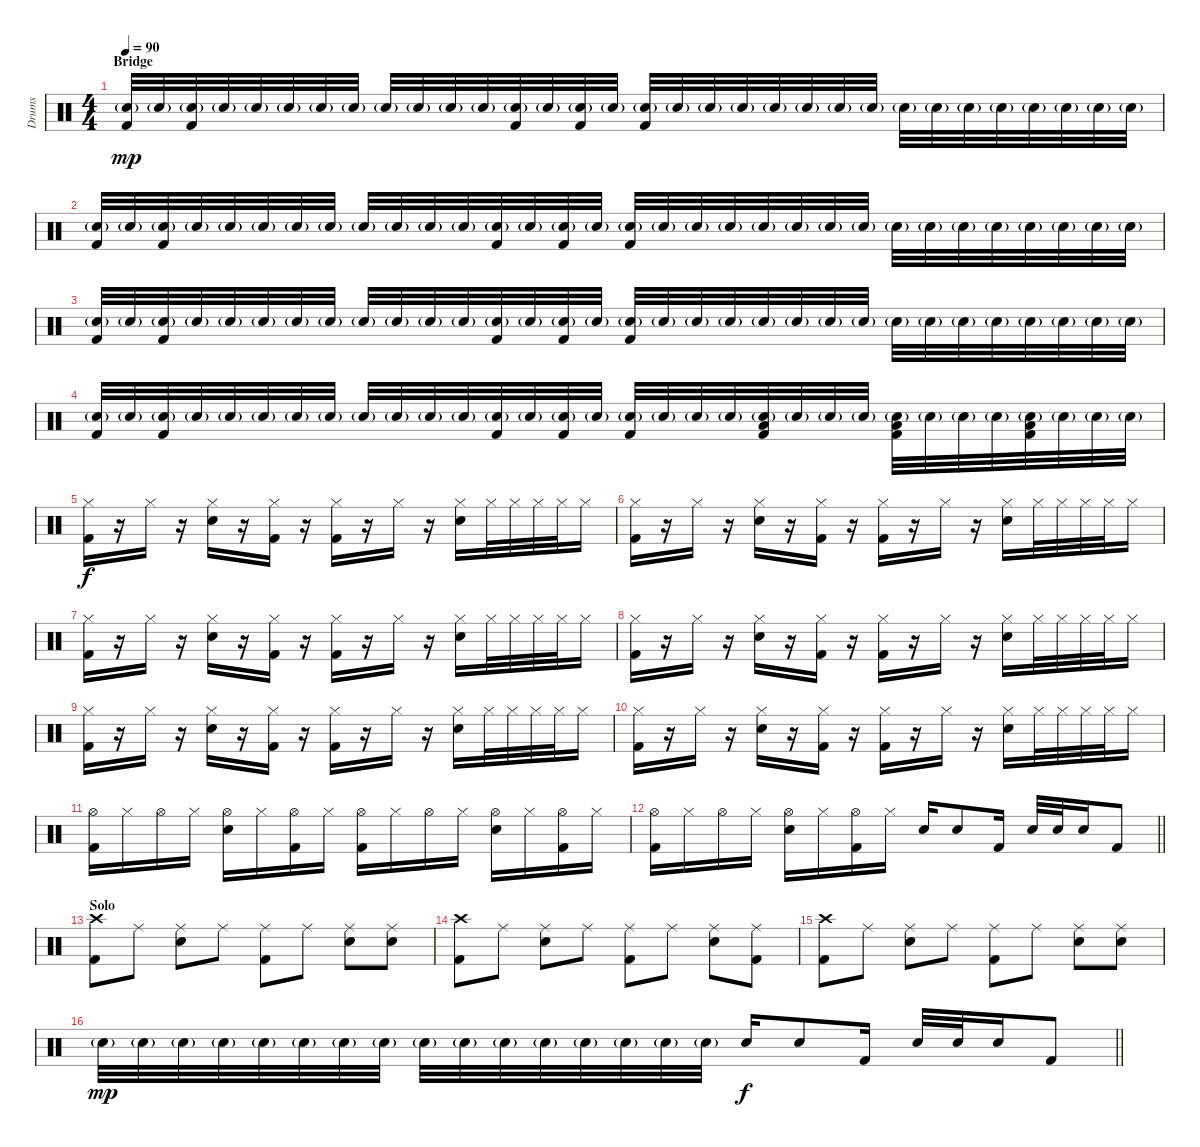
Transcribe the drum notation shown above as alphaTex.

\track ("Drums" "Drums") {instrument percussion}
\staff {score}
\articulation defaults
\ts (4 4)
\section ("" "Bridge")
\tempo 90
\clef neutral
\ks c
("Snare (hit) 2"{g} "Kick (hit) 2").32{dy mp} "Snare (hit) 2"{g}.32 ("Snare (hit) 2"{g} "Kick (hit) 2").32 "Snare (hit) 2"{g}.32 "Snare (hit) 2"{g}.32 "Snare (hit) 2"{g}.32 "Snare (hit) 2"{g}.32 "Snare (hit) 2"{g}.32 "Snare (hit) 2"{g}.32 "Snare (hit) 2"{g}.32 "Snare (hit) 2"{g}.32 "Snare (hit) 2"{g}.32 ("Snare (hit) 2"{g} "Kick (hit) 2").32 "Snare (hit) 2"{g}.32 ("Snare (hit) 2"{g} "Kick (hit) 2").32 "Snare (hit) 2"{g}.32 ("Snare (hit) 2"{g} "Kick (hit) 2").32 "Snare (hit) 2"{g}.32 "Snare (hit) 2"{g}.32 "Snare (hit) 2"{g}.32 "Snare (hit) 2"{g}.32 "Snare (hit) 2"{g}.32 "Snare (hit) 2"{g}.32 "Snare (hit) 2"{g}.32 "Snare (hit) 2"{g}.32 "Snare (hit) 2"{g}.32 "Snare (hit) 2"{g}.32 "Snare (hit) 2"{g}.32 "Snare (hit) 2"{g}.32 "Snare (hit) 2"{g}.32 "Snare (hit) 2"{g}.32 "Snare (hit) 2"{g}.32 |
("Snare (hit) 2"{g} "Kick (hit) 2").32 "Snare (hit) 2"{g}.32 ("Snare (hit) 2"{g} "Kick (hit) 2").32 "Snare (hit) 2"{g}.32 "Snare (hit) 2"{g}.32 "Snare (hit) 2"{g}.32 "Snare (hit) 2"{g}.32 "Snare (hit) 2"{g}.32 "Snare (hit) 2"{g}.32 "Snare (hit) 2"{g}.32 "Snare (hit) 2"{g}.32 "Snare (hit) 2"{g}.32 ("Snare (hit) 2"{g} "Kick (hit) 2").32 "Snare (hit) 2"{g}.32 ("Snare (hit) 2"{g} "Kick (hit) 2").32 "Snare (hit) 2"{g}.32 ("Snare (hit) 2"{g} "Kick (hit) 2").32 "Snare (hit) 2"{g}.32 "Snare (hit) 2"{g}.32 "Snare (hit) 2"{g}.32 "Snare (hit) 2"{g}.32 "Snare (hit) 2"{g}.32 "Snare (hit) 2"{g}.32 "Snare (hit) 2"{g}.32 "Snare (hit) 2"{g}.32 "Snare (hit) 2"{g}.32 "Snare (hit) 2"{g}.32 "Snare (hit) 2"{g}.32 "Snare (hit) 2"{g}.32 "Snare (hit) 2"{g}.32 "Snare (hit) 2"{g}.32 "Snare (hit) 2"{g}.32 |
("Snare (hit) 2"{g} "Kick (hit) 2").32 "Snare (hit) 2"{g}.32 ("Snare (hit) 2"{g} "Kick (hit) 2").32 "Snare (hit) 2"{g}.32 "Snare (hit) 2"{g}.32 "Snare (hit) 2"{g}.32 "Snare (hit) 2"{g}.32 "Snare (hit) 2"{g}.32 "Snare (hit) 2"{g}.32 "Snare (hit) 2"{g}.32 "Snare (hit) 2"{g}.32 "Snare (hit) 2"{g}.32 ("Snare (hit) 2"{g} "Kick (hit) 2").32 "Snare (hit) 2"{g}.32 ("Snare (hit) 2"{g} "Kick (hit) 2").32 "Snare (hit) 2"{g}.32 ("Snare (hit) 2"{g} "Kick (hit) 2").32 "Snare (hit) 2"{g}.32 "Snare (hit) 2"{g}.32 "Snare (hit) 2"{g}.32 "Snare (hit) 2"{g}.32 "Snare (hit) 2"{g}.32 "Snare (hit) 2"{g}.32 "Snare (hit) 2"{g}.32 "Snare (hit) 2"{g}.32 "Snare (hit) 2"{g}.32 "Snare (hit) 2"{g}.32 "Snare (hit) 2"{g}.32 "Snare (hit) 2"{g}.32 "Snare (hit) 2"{g}.32 "Snare (hit) 2"{g}.32 "Snare (hit) 2"{g}.32 |
("Snare (hit) 2"{g} "Kick (hit) 2").32 "Snare (hit) 2"{g}.32 ("Snare (hit) 2"{g} "Kick (hit) 2").32 "Snare (hit) 2"{g}.32 "Snare (hit) 2"{g}.32 "Snare (hit) 2"{g}.32 "Snare (hit) 2"{g}.32 "Snare (hit) 2"{g}.32 "Snare (hit) 2"{g}.32 "Snare (hit) 2"{g}.32 "Snare (hit) 2"{g}.32 "Snare (hit) 2"{g}.32 ("Snare (hit) 2"{g} "Kick (hit) 2").32 "Snare (hit) 2"{g}.32 ("Snare (hit) 2"{g} "Kick (hit) 2").32 "Snare (hit) 2"{g}.32 ("Snare (hit) 2"{g} "Kick (hit) 2").32 "Snare (hit) 2"{g}.32 "Snare (hit) 2"{g}.32 "Snare (hit) 2"{g}.32 ("Low Tom (hit)" "Snare (hit) 2"{g} "Kick (hit) 2").32 "Snare (hit) 2"{g}.32 "Snare (hit) 2"{g}.32 "Snare (hit) 2"{g}.32 ("Low Tom (hit)" "Snare (hit) 2"{g} "Kick (hit) 2").32 "Snare (hit) 2"{g}.32 "Snare (hit) 2"{g}.32 "Snare (hit) 2"{g}.32 ("Low Tom (hit)" "Snare (hit) 2"{g} "Kick (hit) 2").32 "Snare (hit) 2"{g}.32 "Snare (hit) 2"{g}.32 "Snare (hit) 2"{g}.32 |
("Hi-Hat (closed)" "Kick (hit) 2").16{dy f} r.16 "Hi-Hat (closed)".16 r.16 ("Hi-Hat (closed)" "Snare (hit) 2").16 r.16 ("Hi-Hat (closed)" "Kick (hit) 2").16 r.16 ("Hi-Hat (closed)" "Kick (hit) 2").16 r.16 "Hi-Hat (closed)".16 r.16 ("Hi-Hat (closed)" "Snare (hit) 2").16 "Hi-Hat (closed)".32 "Hi-Hat (closed)".32 "Hi-Hat (closed)".32 "Hi-Hat (closed)".32 "Hi-Hat (closed)".16 |
("Hi-Hat (closed)" "Kick (hit) 2").16 r.16 "Hi-Hat (closed)".16 r.16 ("Hi-Hat (closed)" "Snare (hit) 2").16 r.16 ("Hi-Hat (closed)" "Kick (hit) 2").16 r.16 ("Hi-Hat (closed)" "Kick (hit) 2").16 r.16 "Hi-Hat (closed)".16 r.16 ("Hi-Hat (closed)" "Snare (hit) 2").16 "Hi-Hat (closed)".32 "Hi-Hat (closed)".32 "Hi-Hat (closed)".32 "Hi-Hat (closed)".32 "Hi-Hat (closed)".16 |
("Hi-Hat (closed)" "Kick (hit) 2").16 r.16 "Hi-Hat (closed)".16 r.16 ("Hi-Hat (closed)" "Snare (hit) 2").16 r.16 ("Hi-Hat (closed)" "Kick (hit) 2").16 r.16 ("Hi-Hat (closed)" "Kick (hit) 2").16 r.16 "Hi-Hat (closed)".16 r.16 ("Hi-Hat (closed)" "Snare (hit) 2").16 "Hi-Hat (closed)".32 "Hi-Hat (closed)".32 "Hi-Hat (closed)".32 "Hi-Hat (closed)".32 "Hi-Hat (closed)".16 |
("Hi-Hat (closed)" "Kick (hit) 2").16 r.16 "Hi-Hat (closed)".16 r.16 ("Hi-Hat (closed)" "Snare (hit) 2").16 r.16 ("Hi-Hat (closed)" "Kick (hit) 2").16 r.16 ("Hi-Hat (closed)" "Kick (hit) 2").16 r.16 "Hi-Hat (closed)".16 r.16 ("Hi-Hat (closed)" "Snare (hit) 2").16 "Hi-Hat (closed)".32 "Hi-Hat (closed)".32 "Hi-Hat (closed)".32 "Hi-Hat (closed)".32 "Hi-Hat (closed)".16 |
("Hi-Hat (closed)" "Kick (hit) 2").16 r.16 "Hi-Hat (closed)".16 r.16 ("Hi-Hat (closed)" "Snare (hit) 2").16 r.16 ("Hi-Hat (closed)" "Kick (hit) 2").16 r.16 ("Hi-Hat (closed)" "Kick (hit) 2").16 r.16 "Hi-Hat (closed)".16 r.16 ("Hi-Hat (closed)" "Snare (hit) 2").16 "Hi-Hat (closed)".32 "Hi-Hat (closed)".32 "Hi-Hat (closed)".32 "Hi-Hat (closed)".32 "Hi-Hat (closed)".16 |
("Hi-Hat (closed)" "Kick (hit) 2").16 r.16 "Hi-Hat (closed)".16 r.16 ("Hi-Hat (closed)" "Snare (hit) 2").16 r.16 ("Hi-Hat (closed)" "Kick (hit) 2").16 r.16 ("Hi-Hat (closed)" "Kick (hit) 2").16 r.16 "Hi-Hat (closed)".16 r.16 ("Hi-Hat (closed)" "Snare (hit) 2").16 "Hi-Hat (closed)".32 "Hi-Hat (closed)".32 "Hi-Hat (closed)".32 "Hi-Hat (closed)".32 "Hi-Hat (closed)".16 |
("Hi-Hat (open)" "Kick (hit) 2").16 "Hi-Hat (closed)".16 "Hi-Hat (open)".16 "Hi-Hat (closed)".16 ("Hi-Hat (open)" "Snare (hit) 2").16 "Hi-Hat (closed)".16 ("Hi-Hat (open)" "Kick (hit) 2").16 "Hi-Hat (closed)".16 ("Hi-Hat (open)" "Kick (hit) 2").16 "Hi-Hat (closed)".16 "Hi-Hat (open)".16 "Hi-Hat (closed)".16 ("Hi-Hat (open)" "Snare (hit) 2").16 "Hi-Hat (closed)".16 ("Hi-Hat (open)" "Kick (hit) 2").16 "Hi-Hat (closed)".16 |
\barLineRight lightlight
("Hi-Hat (open)" "Kick (hit) 2").16 "Hi-Hat (closed)".16 "Hi-Hat (open)".16 "Hi-Hat (closed)".16 ("Hi-Hat (open)" "Snare (hit) 2").16 "Hi-Hat (closed)".16 ("Hi-Hat (open)" "Kick (hit) 2").16 "Hi-Hat (closed)".16 "Snare (hit) 2".16 "Snare (hit) 2".8 "Kick (hit) 2".16 "Snare (hit) 2".32 "Snare (hit) 2".32 "Snare (hit) 2".16 "Kick (hit) 2".8 |
\section ("" "Solo")
("Crash high (hit)" "Kick (hit) 2").8 "Ride (middle)".8 ("Ride (middle)" "Snare (hit) 2").8 "Ride (middle)".8 ("Ride (middle)" "Kick (hit) 2").8 "Ride (middle)".8 ("Ride (middle)" "Snare (hit) 2").8 ("Ride (middle)" "Snare (hit) 2").8 |
("Crash high (hit)" "Kick (hit) 2").8 "Ride (middle)".8 ("Ride (middle)" "Snare (hit) 2").8 "Ride (middle)".8 ("Ride (middle)" "Kick (hit) 2").8 "Ride (middle)".8 ("Ride (middle)" "Snare (hit) 2").8 ("Ride (middle)" "Kick (hit) 2").8 |
("Crash high (hit)" "Kick (hit) 2").8 "Ride (middle)".8 ("Ride (middle)" "Snare (hit) 2").8 "Ride (middle)".8 ("Ride (middle)" "Kick (hit) 2").8 "Ride (middle)".8 ("Ride (middle)" "Snare (hit) 2").8 ("Ride (middle)" "Snare (hit) 2").8 |
\barLineRight lightlight "Snare (hit) 2"{g}.32{dy mp} "Snare (hit) 2"{g}.32 "Snare (hit) 2"{g}.32 "Snare (hit) 2"{g}.32 "Snare (hit) 2"{g}.32 "Snare (hit) 2"{g}.32 "Snare (hit) 2"{g}.32 "Snare (hit) 2"{g}.32 "Snare (hit) 2"{g}.32 "Snare (hit) 2"{g}.32 "Snare (hit) 2"{g}.32 "Snare (hit) 2"{g}.32 "Snare (hit) 2"{g}.32 "Snare (hit) 2"{g}.32 "Snare (hit) 2"{g}.32 "Snare (hit) 2"{g}.32 "Snare (hit) 2".16{dy f} "Snare (hit) 2".8 "Kick (hit) 2".16 "Snare (hit) 2".32 "Snare (hit) 2".32 "Snare (hit) 2".16 "Kick (hit) 2".8
